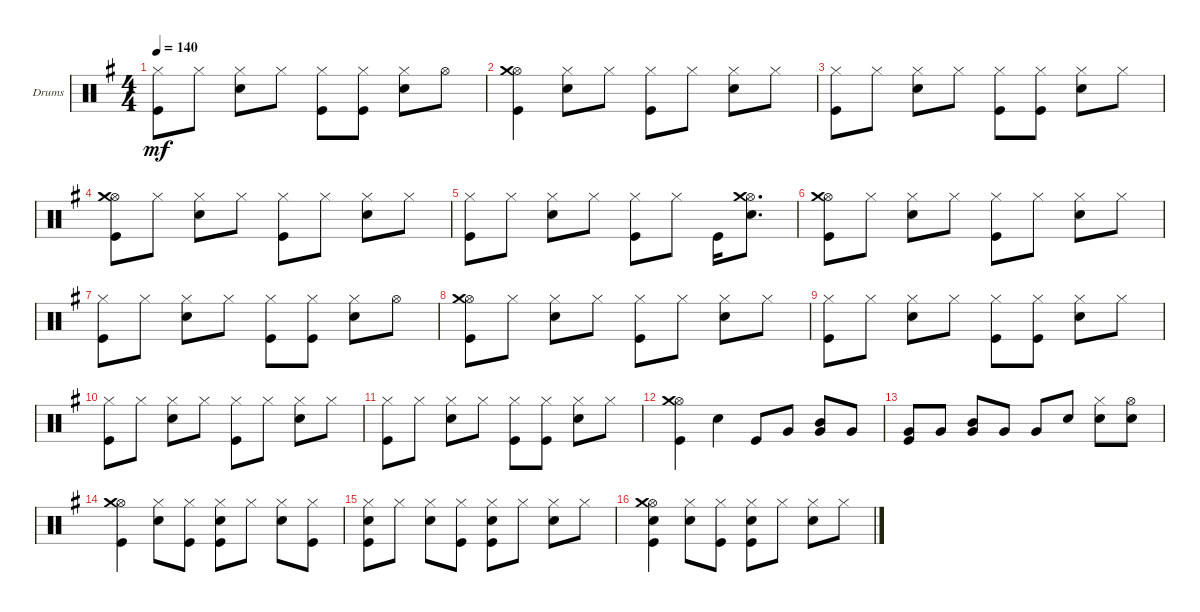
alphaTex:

\defaultSystemsLayout 4
\bracketExtendMode groupsimilarinstruments
\firstSystemTrackNameOrientation horizontal
\otherSystemsTrackNameOrientation horizontal
\track ("Drumkit" "Drums") {instrument percussion}
\staff {score}
\articulation defaults
\ts (4 4)
\tempo 140
\clef neutral
\ks g
("Hi-Hat (closed)" "Kick (hit)").8{dy mf} "Hi-Hat (closed)".8 ("Hi-Hat (closed)" "Snare (hit) 2").8 "Hi-Hat (closed)".8 ("Hi-Hat (closed)" "Kick (hit)").8 ("Kick (hit)" "Hi-Hat (closed)").8 ("Hi-Hat (closed)" "Snare (hit) 2").8 "Hi-Hat (open)".8 |
("Hi-Hat (open)" "Crash medium (hit)" "Kick (hit)").4 ("Hi-Hat (closed)" "Snare (hit) 2").8 "Hi-Hat (closed)".8 ("Hi-Hat (closed)" "Kick (hit)").8 "Hi-Hat (closed)".8 ("Hi-Hat (closed)" "Snare (hit) 2").8 "Hi-Hat (closed)".8 |
("Hi-Hat (closed)" "Kick (hit)").8 "Hi-Hat (closed)".8 ("Hi-Hat (closed)" "Snare (hit) 2").8 "Hi-Hat (closed)".8 ("Hi-Hat (closed)" "Kick (hit)").8 ("Hi-Hat (closed)" "Kick (hit)").8 ("Hi-Hat (closed)" "Snare (hit) 2").8 "Hi-Hat (closed)".8 |
("Hi-Hat (open)" "Crash medium (hit)" "Kick (hit)").8 "Hi-Hat (closed)".8 ("Hi-Hat (closed)" "Snare (hit) 2").8 "Hi-Hat (closed)".8 ("Hi-Hat (closed)" "Kick (hit)").8 "Hi-Hat (closed)".8 ("Hi-Hat (closed)" "Snare (hit) 2").8 "Hi-Hat (closed)".8 |
("Kick (hit)" "Hi-Hat (closed)").8 "Hi-Hat (closed)".8 ("Hi-Hat (closed)" "Snare (hit) 2").8 "Hi-Hat (closed)".8 ("Hi-Hat (closed)" "Kick (hit)").8 "Hi-Hat (closed)".8 "Kick (hit)".16 ("Snare (hit) 2" "Hi-Hat (open)" "Crash medium (hit)").8{d} |
("Hi-Hat (open)" "Crash medium (hit)" "Kick (hit)").8 "Hi-Hat (closed)".8 ("Hi-Hat (closed)" "Snare (hit) 2").8 "Hi-Hat (closed)".8 ("Hi-Hat (closed)" "Kick (hit)").8 "Hi-Hat (closed)".8 ("Hi-Hat (closed)" "Snare (hit) 2").8 "Hi-Hat (closed)".8 |
("Hi-Hat (closed)" "Kick (hit)").8 "Hi-Hat (closed)".8 ("Hi-Hat (closed)" "Snare (hit) 2").8 "Hi-Hat (closed)".8 ("Hi-Hat (closed)" "Kick (hit)").8 ("Hi-Hat (closed)" "Kick (hit)").8 ("Hi-Hat (closed)" "Snare (hit) 2").8 "Hi-Hat (open)".8 |
("Hi-Hat (open)" "Crash medium (hit)" "Kick (hit)").8 "Hi-Hat (closed)".8 ("Hi-Hat (closed)" "Snare (hit) 2").8 "Hi-Hat (closed)".8 ("Hi-Hat (closed)" "Kick (hit)").8 "Hi-Hat (closed)".8 ("Hi-Hat (closed)" "Snare (hit) 2").8 "Hi-Hat (closed)".8 |
("Kick (hit)" "Hi-Hat (closed)").8 "Hi-Hat (closed)".8 ("Hi-Hat (closed)" "Snare (hit) 2").8 "Hi-Hat (closed)".8 ("Hi-Hat (closed)" "Kick (hit)").8 ("Hi-Hat (closed)" "Kick (hit)").8 ("Snare (hit) 2" "Hi-Hat (closed)").8 "Hi-Hat (closed)".8 |
("Kick (hit)" "Hi-Hat (closed)").8 "Hi-Hat (closed)".8 ("Hi-Hat (closed)" "Snare (hit) 2").8 "Hi-Hat (closed)".8 ("Hi-Hat (closed)" "Kick (hit)").8 "Hi-Hat (closed)".8 ("Hi-Hat (closed)" "Snare (hit) 2").8 "Hi-Hat (closed)".8 |
("Hi-Hat (closed)" "Kick (hit)").8 "Hi-Hat (closed)".8 ("Hi-Hat (closed)" "Snare (hit) 2").8 "Hi-Hat (closed)".8 ("Hi-Hat (closed)" "Kick (hit)").8 ("Hi-Hat (closed)" "Kick (hit)").8 ("Hi-Hat (closed)" "Snare (hit) 2").8 "Hi-Hat (closed)".8 |
("Hi-Hat (open)" "Crash medium (hit)" "Kick (hit)").4 "Snare (hit) 2".4 "Kick (hit)".8 "Very Low Tom (hit)".8 ("Very Low Tom (hit)" "Mid Tom (hit)").8 "Very Low Tom (hit)".8 |
("Kick (hit)" "Very Low Tom (hit)").8 "Very Low Tom (hit)".8 ("Very Low Tom (hit)" "Mid Tom (hit)").8 "Very Low Tom (hit)".8 "Very Low Tom (hit)".8 "Snare (hit) 2".8 ("Snare (hit) 2" "Hi-Hat (closed)").8 ("Hi-Hat (open)" "Snare (hit) 2").8 |
("Hi-Hat (open)" "Kick (hit)" "Crash medium (hit)").4 ("Hi-Hat (closed)" "Snare (hit) 2").8 ("Hi-Hat (closed)" "Kick (hit)").8 ("Hi-Hat (closed)" "Snare (hit) 2" "Kick (hit)").8 "Hi-Hat (closed)".8 ("Hi-Hat (closed)" "Snare (hit) 2").8 ("Kick (hit)" "Hi-Hat (closed)").8 |
("Kick (hit)" "Snare (hit) 2" "Hi-Hat (closed)").8 "Hi-Hat (closed)".8 ("Hi-Hat (closed)" "Snare (hit) 2").8 ("Hi-Hat (closed)" "Kick (hit)").8 ("Snare (hit) 2" "Hi-Hat (closed)" "Kick (hit)").8 "Hi-Hat (closed)".8 ("Hi-Hat (closed)" "Snare (hit) 2").8 "Hi-Hat (closed)".8 |
("Hi-Hat (open)" "Crash medium (hit)" "Snare (hit) 2" "Kick (hit)").4 ("Hi-Hat (closed)" "Snare (hit) 2").8 ("Kick (hit)" "Hi-Hat (closed)").8 ("Hi-Hat (closed)" "Kick (hit)" "Snare (hit) 2").8 "Hi-Hat (closed)".8 ("Hi-Hat (closed)" "Snare (hit) 2").8 "Hi-Hat (closed)".8
